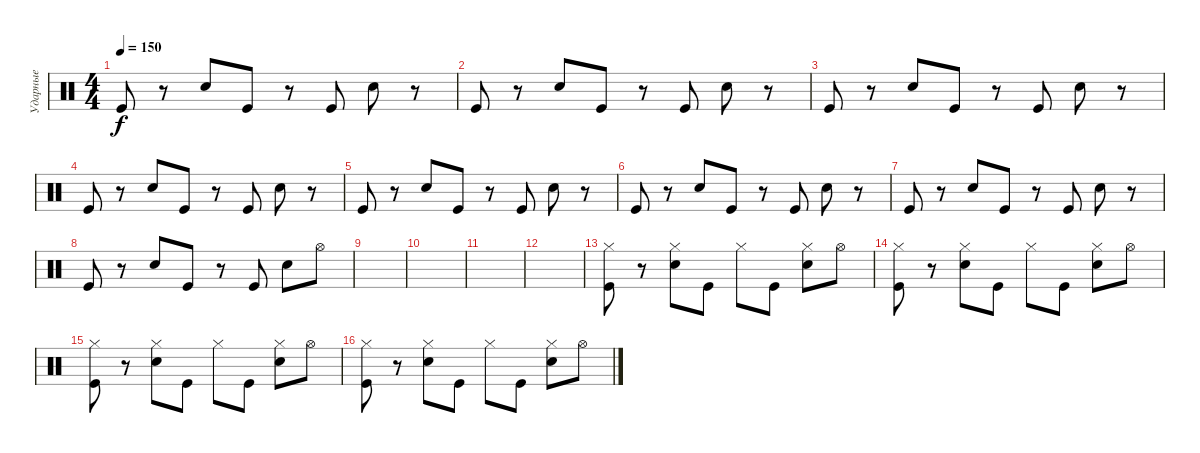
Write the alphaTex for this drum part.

\track ("Ударные" "Ударные") {instrument percussion}
\staff {score}
\articulation defaults
\ts (4 4)
\tempo 150
\clef neutral
\ks c "Kick (hit)".8{dy f}
r.8 "Hand Clap (hit)".8 "Kick (hit)".8 r.8 "Kick (hit)".8 "Hand Clap (hit)".8 r.8 |
"Kick (hit)".8 r.8 "Hand Clap (hit)".8 "Kick (hit)".8 r.8 "Kick (hit)".8 "Hand Clap (hit)".8 r.8 |
"Kick (hit)".8 r.8 "Hand Clap (hit)".8 "Kick (hit)".8 r.8 "Kick (hit)".8 "Hand Clap (hit)".8 r.8 |
"Kick (hit)".8 r.8 "Hand Clap (hit)".8 "Kick (hit)".8 r.8 "Kick (hit)".8 "Hand Clap (hit)".8 r.8 |
"Kick (hit)".8 r.8 "Hand Clap (hit)".8 "Kick (hit)".8 r.8 "Kick (hit)".8 "Hand Clap (hit)".8 r.8 |
"Kick (hit)".8 r.8 "Hand Clap (hit)".8 "Kick (hit)".8 r.8 "Kick (hit)".8 "Hand Clap (hit)".8 r.8 |
"Kick (hit)".8 r.8 "Hand Clap (hit)".8 "Kick (hit)".8 r.8 "Kick (hit)".8 "Hand Clap (hit)".8 r.8 |
"Kick (hit)".8 r.8 "Hand Clap (hit)".8 "Kick (hit)".8 r.8 "Kick (hit)".8 "Hand Clap (hit)".8 "Hi-Hat (open)".8 |
|
|
|
|
("Kick (hit)" "Hi-Hat (closed)").8 r.8 ("Hand Clap (hit)" "Hi-Hat (closed)").8 "Kick (hit)".8 "Hi-Hat (closed)".8 "Kick (hit)".8 ("Hand Clap (hit)" "Hi-Hat (closed)").8 "Hi-Hat (open)".8 |
("Kick (hit)" "Hi-Hat (closed)").8 r.8 ("Hand Clap (hit)" "Hi-Hat (closed)").8 "Kick (hit)".8 "Hi-Hat (closed)".8 "Kick (hit)".8 ("Hand Clap (hit)" "Hi-Hat (closed)").8 "Hi-Hat (open)".8 |
("Kick (hit)" "Hi-Hat (closed)").8 r.8 ("Hand Clap (hit)" "Hi-Hat (closed)").8 "Kick (hit)".8 "Hi-Hat (closed)".8 "Kick (hit)".8 ("Hand Clap (hit)" "Hi-Hat (closed)").8 "Hi-Hat (open)".8 |
("Kick (hit)" "Hi-Hat (closed)").8 r.8 ("Hand Clap (hit)" "Hi-Hat (closed)").8 "Kick (hit)".8 "Hi-Hat (closed)".8 "Kick (hit)".8 ("Hand Clap (hit)" "Hi-Hat (closed)").8 "Hi-Hat (open)".8
